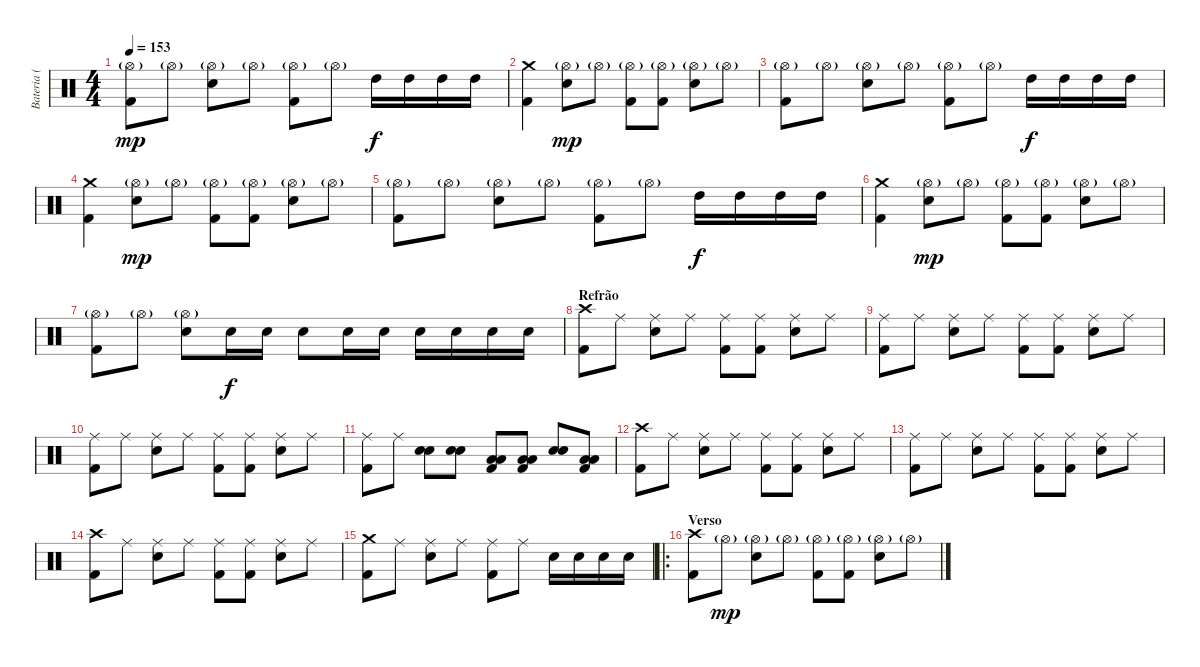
\track ("Bateria ( Marky Ramone)" "Bateria ( ") {instrument percussion}
\staff {score}
\articulation defaults
\ts (4 4)
\tempo 153
\clef neutral
\ks c
("Hi-Hat (open)"{g} "Kick (hit) 2").8{dy mp} "Hi-Hat (open)"{g}.8 ("Hi-Hat (open)"{g} "Electric Snare (hit)").8 "Hi-Hat (open)"{g}.8 ("Hi-Hat (open)"{g} "Kick (hit) 2").8 "Hi-Hat (open)"{g}.8 "High Tom (hit)".16{dy f} "High Tom (hit)".16 "High Tom (hit)".16 "High Tom (hit)".16 |
("Crash medium (hit)" "Kick (hit) 2").4 ("Hi-Hat (open)"{g} "Electric Snare (hit)").8{dy mp} "Hi-Hat (open)"{g}.8 ("Hi-Hat (open)"{g} "Kick (hit) 2").8 ("Hi-Hat (open)"{g} "Kick (hit) 2").8 ("Hi-Hat (open)"{g} "Electric Snare (hit)").8 "Hi-Hat (open)"{g}.8 |
("Hi-Hat (open)"{g} "Kick (hit) 2").8 "Hi-Hat (open)"{g}.8 ("Hi-Hat (open)"{g} "Electric Snare (hit)").8 "Hi-Hat (open)"{g}.8 ("Hi-Hat (open)"{g} "Kick (hit) 2").8 "Hi-Hat (open)"{g}.8 "High Tom (hit)".16{dy f} "High Tom (hit)".16 "High Tom (hit)".16 "High Tom (hit)".16 |
("Crash medium (hit)" "Kick (hit) 2").4 ("Hi-Hat (open)"{g} "Electric Snare (hit)").8{dy mp} "Hi-Hat (open)"{g}.8 ("Hi-Hat (open)"{g} "Kick (hit) 2").8 ("Hi-Hat (open)"{g} "Kick (hit) 2").8 ("Hi-Hat (open)"{g} "Electric Snare (hit)").8 "Hi-Hat (open)"{g}.8 |
("Hi-Hat (open)"{g} "Kick (hit) 2").8 "Hi-Hat (open)"{g}.8 ("Hi-Hat (open)"{g} "Electric Snare (hit)").8 "Hi-Hat (open)"{g}.8 ("Hi-Hat (open)"{g} "Kick (hit) 2").8 "Hi-Hat (open)"{g}.8 "High Tom (hit)".16{dy f} "High Tom (hit)".16 "High Tom (hit)".16 "High Tom (hit)".16 |
("Crash medium (hit)" "Kick (hit) 2").4 ("Hi-Hat (open)"{g} "Electric Snare (hit)").8{dy mp} "Hi-Hat (open)"{g}.8 ("Hi-Hat (open)"{g} "Kick (hit) 2").8 ("Hi-Hat (open)"{g} "Kick (hit) 2").8 ("Hi-Hat (open)"{g} "Electric Snare (hit)").8 "Hi-Hat (open)"{g}.8 |
("Hi-Hat (open)"{g} "Kick (hit) 2").8 "Hi-Hat (open)"{g}.8 ("Hi-Hat (open)"{g} "Electric Snare (hit)").8 "Electric Snare (hit)".16{dy f} "Electric Snare (hit)".16 "Electric Snare (hit)".8 "Electric Snare (hit)".16 "Electric Snare (hit)".16 "Electric Snare (hit)".16 "Electric Snare (hit)".16 "Electric Snare (hit)".16 "Electric Snare (hit)".16 |
\section ("" "Refrão")
("Crash high (hit)" "Kick (hit) 2").8 "Ride (middle)".8 ("Ride (middle)" "Electric Snare (hit)").8 "Ride (middle)".8 ("Ride (middle)" "Kick (hit) 2").8 ("Ride (middle)" "Kick (hit) 2").8 ("Ride (middle)" "Electric Snare (hit)").8 "Ride (middle)".8 |
("Ride (middle)" "Kick (hit) 2").8 "Ride (middle)".8 ("Ride (middle)" "Electric Snare (hit)").8 "Ride (middle)".8 ("Ride (middle)" "Kick (hit) 2").8 ("Ride (middle)" "Kick (hit) 2").8 ("Ride (middle)" "Electric Snare (hit)").8 "Ride (middle)".8 |
("Ride (middle)" "Kick (hit) 2").8 "Ride (middle)".8 ("Ride (middle)" "Electric Snare (hit)").8 "Ride (middle)".8 ("Ride (middle)" "Kick (hit) 2").8 ("Ride (middle)" "Kick (hit) 2").8 ("Ride (middle)" "Electric Snare (hit)").8 "Ride (middle)".8 |
("Ride (middle)" "Kick (hit) 2").8 "Ride (middle)".8 ("Electric Snare (hit)" "Electric Snare (hit)").8 ("Electric Snare (hit)" "Electric Snare (hit)").8 ("Low Tom (hit)" "Low Tom (hit)" "Kick (hit) 2").8 ("Low Tom (hit)" "Low Tom (hit)" "Kick (hit) 2").8 ("Electric Snare (hit)" "Electric Snare (hit)").8 ("Low Tom (hit)" "Low Tom (hit)" "Kick (hit) 2").8 |
("Crash high (hit)" "Kick (hit) 2").8 "Ride (middle)".8 ("Ride (middle)" "Electric Snare (hit)").8 "Ride (middle)".8 ("Ride (middle)" "Kick (hit) 2").8 ("Ride (middle)" "Kick (hit) 2").8 ("Ride (middle)" "Electric Snare (hit)").8 "Ride (middle)".8 |
("Ride (middle)" "Kick (hit) 2").8 "Ride (middle)".8 ("Ride (middle)" "Electric Snare (hit)").8 "Ride (middle)".8 ("Ride (middle)" "Kick (hit) 2").8 ("Ride (middle)" "Kick (hit) 2").8 ("Ride (middle)" "Electric Snare (hit)").8 "Ride (middle)".8 |
("Crash high (hit)" "Kick (hit) 2").8 "Ride (middle)".8 ("Ride (middle)" "Electric Snare (hit)").8 "Ride (middle)".8 ("Ride (middle)" "Kick (hit) 2").8 ("Ride (middle)" "Kick (hit) 2").8 ("Ride (middle)" "Electric Snare (hit)").8 "Ride (middle)".8 |
("Crash medium (hit)" "Kick (hit) 2").8 "Ride (middle)".8 ("Ride (middle)" "Electric Snare (hit)").8 "Ride (middle)".8 ("Ride (middle)" "Kick (hit) 2").8 "Ride (middle)".8 "Electric Snare (hit)".16 "Electric Snare (hit)".16 "Electric Snare (hit)".16 "Electric Snare (hit)".16 |
\ro
\section ("" "Verso")
("Crash high (hit)" "Kick (hit) 2").8 "Hi-Hat (open)"{g}.8{dy mp} ("Hi-Hat (open)"{g} "Electric Snare (hit)").8 "Hi-Hat (open)"{g}.8 ("Hi-Hat (open)"{g} "Kick (hit) 2").8 ("Hi-Hat (open)"{g} "Kick (hit) 2").8 ("Hi-Hat (open)"{g} "Electric Snare (hit)").8 "Hi-Hat (open)"{g}.8
